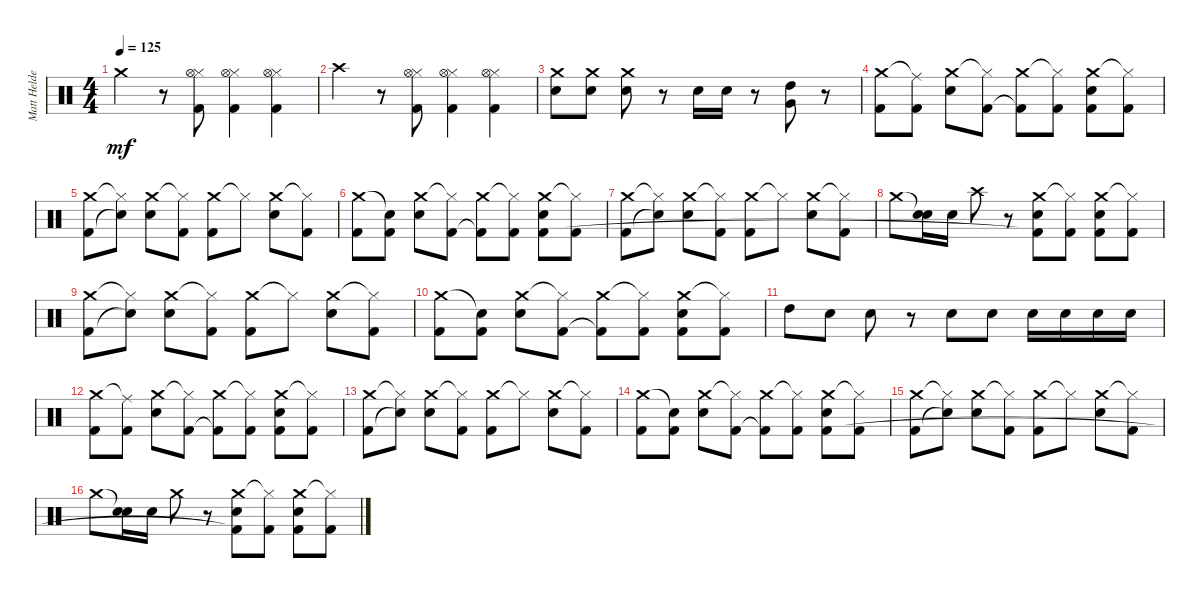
\track ("Matt Helders" "Matt Helde") {instrument percussion}
\staff {score}
\articulation defaults
\ts (4 4)
\tempo 125
\clef neutral
\ks c "Crash medium (hit)".4{dy mf}
r.8 ("Hi-Hat (closed)" "Hi-Hat (open)" "Kick (hit) 2").8 ("Hi-Hat (closed)" "Hi-Hat (open)" "Kick (hit) 2").4 ("Hi-Hat (closed)" "Hi-Hat (open)" "Kick (hit) 2").4 |
"Crash high (hit)".4 r.8 ("Hi-Hat (closed)" "Hi-Hat (open)" "Kick (hit) 2").8 ("Hi-Hat (closed)" "Hi-Hat (open)" "Kick (hit) 2").4 ("Hi-Hat (closed)" "Hi-Hat (open)" "Kick (hit) 2").4 |
("Crash medium (hit)" "Electric Snare (hit)").8 ("Crash medium (hit)" "Electric Snare (hit)").8 ("Crash medium (hit)" "Electric Snare (hit)").8 r.8 "Electric Snare (hit)".16 "Electric Snare (hit)".16 r.8 ("High Tom (hit)" "Very Low Tom (hit)").8 r.8 |
("Crash medium (hit)" "Kick (hit) 2").8 ("Ride (middle)"{t} "Kick (hit) 2").8 ("Crash medium (hit)" "Electric Snare (hit)").8 ("Hi-Hat (closed)"{t} "Kick (hit) 2").8 ("Crash medium (hit)" "Kick (hit) 2"{t}).8 ("Hi-Hat (closed)"{t} "Kick (hit) 2").8 ("Crash medium (hit)" "Electric Snare (hit)" "Kick (hit) 2").8 ("Hi-Hat (closed)"{t} "Kick (hit) 2").8 |
("Crash medium (hit)" "Kick (hit) 2").8 ("Hi-Hat (closed)"{t} "Snare (hit)"{t}).8 ("Crash medium (hit)" "Electric Snare (hit)").8 ("Hi-Hat (closed)"{t} "Kick (hit) 2").8 ("Crash medium (hit)" "Kick (hit) 2").8 "Hi-Hat (closed)"{t}.8 ("Crash medium (hit)" "Electric Snare (hit)").8 ("Hi-Hat (closed)"{t} "Kick (hit) 2").8 |
("Crash medium (hit)" "Kick (hit) 2").8 ("Snare (hit)"{t} "Kick (hit) 2").8 ("Crash medium (hit)" "Electric Snare (hit)").8 ("Hi-Hat (closed)"{t} "Kick (hit) 2").8 ("Crash medium (hit)" "Kick (hit) 2"{t}).8 ("Hi-Hat (closed)"{t} "Kick (hit) 2").8 ("Crash medium (hit)" "Electric Snare (hit)" "Kick (hit) 2").8 ("Hi-Hat (closed)"{t} "Kick (hit) 2").8 |
("Crash medium (hit)" "Kick (hit) 2").8 ("Hi-Hat (closed)"{t} "Snare (hit)"{t}).8 ("Crash medium (hit)" "Electric Snare (hit)").8 ("Hi-Hat (closed)"{t} "Kick (hit) 2").8 ("Crash medium (hit)" "Kick (hit) 2").8 "Hi-Hat (closed)"{t}.8 ("Crash medium (hit)" "Electric Snare (hit)").8 ("Hi-Hat (closed)"{t} "Kick (hit) 2").8 |
"Crash medium (hit)".8 ("Snare (hit)"{t} "Electric Snare (hit)").16 "Electric Snare (hit)".16 "Crash high (hit)".8 r.8 ("Crash medium (hit)" "Electric Snare (hit)" "Kick (hit) 2"{t}).8 ("Hi-Hat (closed)"{t} "Kick (hit) 2").8 ("Crash medium (hit)" "Electric Snare (hit)" "Kick (hit) 2").8 ("Hi-Hat (closed)"{t} "Kick (hit) 2").8 |
("Crash medium (hit)" "Kick (hit) 2").8 ("Hi-Hat (closed)"{t} "Snare (hit)"{t}).8 ("Crash medium (hit)" "Electric Snare (hit)").8 ("Hi-Hat (closed)"{t} "Kick (hit) 2").8 ("Crash medium (hit)" "Kick (hit) 2").8 "Hi-Hat (closed)"{t}.8 ("Crash medium (hit)" "Electric Snare (hit)").8 ("Hi-Hat (closed)"{t} "Kick (hit) 2").8 |
("Crash medium (hit)" "Kick (hit) 2").8 ("Snare (hit)"{t} "Kick (hit) 2").8 ("Crash medium (hit)" "Electric Snare (hit)").8 ("Hi-Hat (closed)"{t} "Kick (hit) 2").8 ("Crash medium (hit)" "Kick (hit) 2"{t}).8 ("Hi-Hat (closed)"{t} "Kick (hit) 2").8 ("Crash medium (hit)" "Electric Snare (hit)" "Kick (hit) 2").8 ("Hi-Hat (closed)"{t} "Kick (hit) 2").8 |
"High Tom (hit)".8 "Electric Snare (hit)".8 "Electric Snare (hit)".8 r.8 "Electric Snare (hit)".8 "Electric Snare (hit)".8 "Electric Snare (hit)".16 "Electric Snare (hit)".16 "Electric Snare (hit)".16 "Electric Snare (hit)".16 |
("Crash medium (hit)" "Kick (hit) 2").8 ("Ride (middle)"{t} "Kick (hit) 2").8 ("Crash medium (hit)" "Electric Snare (hit)").8 ("Hi-Hat (closed)"{t} "Kick (hit) 2").8 ("Crash medium (hit)" "Kick (hit) 2"{t}).8 ("Hi-Hat (closed)"{t} "Kick (hit) 2").8 ("Crash medium (hit)" "Electric Snare (hit)" "Kick (hit) 2").8 ("Hi-Hat (closed)"{t} "Kick (hit) 2").8 |
("Crash medium (hit)" "Kick (hit) 2").8 ("Hi-Hat (closed)"{t} "Snare (hit)"{t}).8 ("Crash medium (hit)" "Electric Snare (hit)").8 ("Hi-Hat (closed)"{t} "Kick (hit) 2").8 ("Crash medium (hit)" "Kick (hit) 2").8 "Hi-Hat (closed)"{t}.8 ("Crash medium (hit)" "Electric Snare (hit)").8 ("Hi-Hat (closed)"{t} "Kick (hit) 2").8 |
("Crash medium (hit)" "Kick (hit) 2").8 ("Snare (hit)"{t} "Kick (hit) 2").8 ("Crash medium (hit)" "Electric Snare (hit)").8 ("Hi-Hat (closed)"{t} "Kick (hit) 2").8 ("Crash medium (hit)" "Kick (hit) 2"{t}).8 ("Hi-Hat (closed)"{t} "Kick (hit) 2").8 ("Crash medium (hit)" "Electric Snare (hit)" "Kick (hit) 2").8 ("Hi-Hat (closed)"{t} "Kick (hit) 2").8 |
("Crash medium (hit)" "Kick (hit) 2").8 ("Hi-Hat (closed)"{t} "Snare (hit)"{t}).8 ("Crash medium (hit)" "Electric Snare (hit)").8 ("Hi-Hat (closed)"{t} "Kick (hit) 2").8 ("Crash medium (hit)" "Kick (hit) 2").8 "Hi-Hat (closed)"{t}.8 ("Crash medium (hit)" "Electric Snare (hit)").8 ("Hi-Hat (closed)"{t} "Kick (hit) 2").8 |
"Crash medium (hit)".8 ("Snare (hit)"{t} "Electric Snare (hit)").16 "Electric Snare (hit)".16 "Crash medium (hit)".8 r.8 ("Crash medium (hit)" "Electric Snare (hit)" "Kick (hit) 2"{t}).8 ("Hi-Hat (closed)"{t} "Kick (hit) 2").8 ("Crash medium (hit)" "Electric Snare (hit)" "Kick (hit) 2").8 ("Hi-Hat (closed)"{t} "Kick (hit) 2").8
